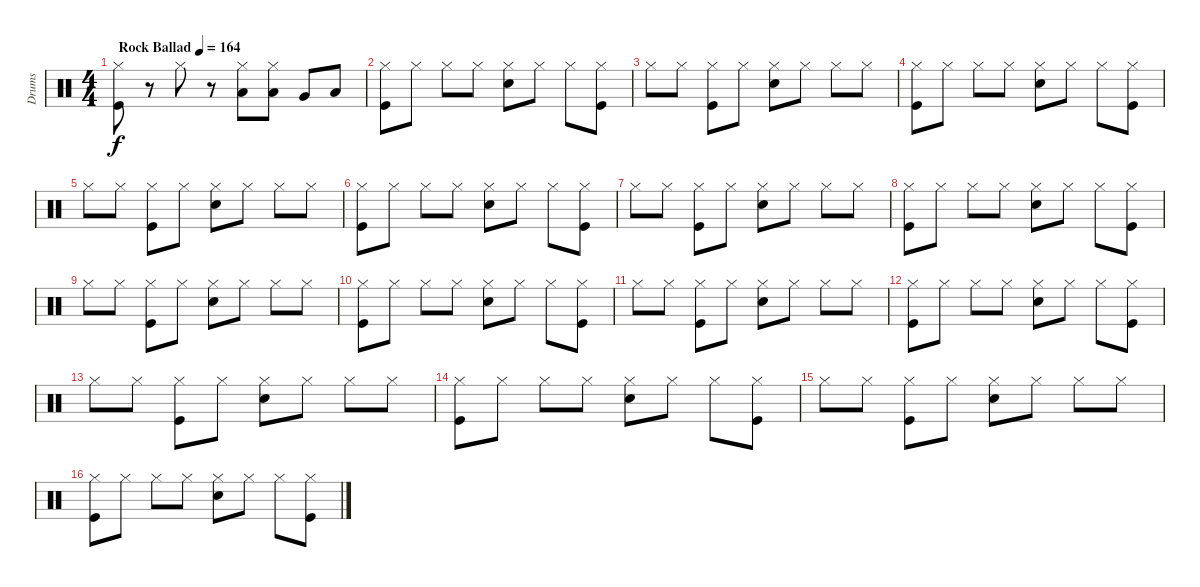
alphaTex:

\track ("Drums" "Drums") {instrument percussion}
\staff {score}
\articulation defaults
\ts (4 4)
\tempo (164 "Rock Ballad")
\clef neutral
\ks c
("Kick (hit)" "Hi-Hat (closed)").8{dy f} r.8 "Hi-Hat (closed)".8 r.8 ("Low Tom (hit)" "Hi-Hat (closed)").8 ("Low Tom (hit)" "Hi-Hat (closed)").8 "Very Low Tom (hit)".8 "Low Floor Tom (hit)".8 |
("Kick (hit)" "Hi-Hat (closed)").8 "Hi-Hat (closed)".8 "Hi-Hat (closed)".8 "Hi-Hat (closed)".8 ("Snare (hit) 2" "Hi-Hat (closed)").8 "Hi-Hat (closed)".8 "Hi-Hat (closed)".8 ("Kick (hit)" "Hi-Hat (closed)").8 |
"Hi-Hat (closed)".8 "Hi-Hat (closed)".8 ("Kick (hit)" "Hi-Hat (closed)").8 "Hi-Hat (closed)".8 ("Snare (hit) 2" "Hi-Hat (closed)").8 "Hi-Hat (closed)".8 "Hi-Hat (closed)".8 "Hi-Hat (closed)".8 |
("Kick (hit)" "Hi-Hat (closed)").8 "Hi-Hat (closed)".8 "Hi-Hat (closed)".8 "Hi-Hat (closed)".8 ("Snare (hit) 2" "Hi-Hat (closed)").8 "Hi-Hat (closed)".8 "Hi-Hat (closed)".8 ("Kick (hit)" "Hi-Hat (closed)").8 |
"Hi-Hat (closed)".8 "Hi-Hat (closed)".8 ("Kick (hit)" "Hi-Hat (closed)").8 "Hi-Hat (closed)".8 ("Snare (hit) 2" "Hi-Hat (closed)").8 "Hi-Hat (closed)".8 "Hi-Hat (closed)".8 "Hi-Hat (closed)".8 |
("Kick (hit)" "Hi-Hat (closed)").8 "Hi-Hat (closed)".8 "Hi-Hat (closed)".8 "Hi-Hat (closed)".8 ("Snare (hit) 2" "Hi-Hat (closed)").8 "Hi-Hat (closed)".8 "Hi-Hat (closed)".8 ("Kick (hit)" "Hi-Hat (closed)").8 |
"Hi-Hat (closed)".8 "Hi-Hat (closed)".8 ("Kick (hit)" "Hi-Hat (closed)").8 "Hi-Hat (closed)".8 ("Snare (hit) 2" "Hi-Hat (closed)").8 "Hi-Hat (closed)".8 "Hi-Hat (closed)".8 "Hi-Hat (closed)".8 |
("Kick (hit)" "Hi-Hat (closed)").8 "Hi-Hat (closed)".8 "Hi-Hat (closed)".8 "Hi-Hat (closed)".8 ("Snare (hit) 2" "Hi-Hat (closed)").8 "Hi-Hat (closed)".8 "Hi-Hat (closed)".8 ("Kick (hit)" "Hi-Hat (closed)").8 |
"Hi-Hat (closed)".8 "Hi-Hat (closed)".8 ("Kick (hit)" "Hi-Hat (closed)").8 "Hi-Hat (closed)".8 ("Snare (hit) 2" "Hi-Hat (closed)").8 "Hi-Hat (closed)".8 "Hi-Hat (closed)".8 "Hi-Hat (closed)".8 |
("Kick (hit)" "Hi-Hat (closed)").8 "Hi-Hat (closed)".8 "Hi-Hat (closed)".8 "Hi-Hat (closed)".8 ("Snare (hit) 2" "Hi-Hat (closed)").8 "Hi-Hat (closed)".8 "Hi-Hat (closed)".8 ("Kick (hit)" "Hi-Hat (closed)").8 |
"Hi-Hat (closed)".8 "Hi-Hat (closed)".8 ("Kick (hit)" "Hi-Hat (closed)").8 "Hi-Hat (closed)".8 ("Snare (hit) 2" "Hi-Hat (closed)").8 "Hi-Hat (closed)".8 "Hi-Hat (closed)".8 "Hi-Hat (closed)".8 |
("Kick (hit)" "Hi-Hat (closed)").8 "Hi-Hat (closed)".8 "Hi-Hat (closed)".8 "Hi-Hat (closed)".8 ("Snare (hit) 2" "Hi-Hat (closed)").8 "Hi-Hat (closed)".8 "Hi-Hat (closed)".8 ("Kick (hit)" "Hi-Hat (closed)").8 |
"Hi-Hat (closed)".8 "Hi-Hat (closed)".8 ("Kick (hit)" "Hi-Hat (closed)").8 "Hi-Hat (closed)".8 ("Snare (hit) 2" "Hi-Hat (closed)").8 "Hi-Hat (closed)".8 "Hi-Hat (closed)".8 "Hi-Hat (closed)".8 |
("Kick (hit)" "Hi-Hat (closed)").8 "Hi-Hat (closed)".8 "Hi-Hat (closed)".8 "Hi-Hat (closed)".8 ("Snare (hit) 2" "Hi-Hat (closed)").8 "Hi-Hat (closed)".8 "Hi-Hat (closed)".8 ("Kick (hit)" "Hi-Hat (closed)").8 |
"Hi-Hat (closed)".8 "Hi-Hat (closed)".8 ("Kick (hit)" "Hi-Hat (closed)").8 "Hi-Hat (closed)".8 ("Snare (hit) 2" "Hi-Hat (closed)").8 "Hi-Hat (closed)".8 "Hi-Hat (closed)".8 "Hi-Hat (closed)".8 |
("Kick (hit)" "Hi-Hat (closed)").8 "Hi-Hat (closed)".8 "Hi-Hat (closed)".8 "Hi-Hat (closed)".8 ("Snare (hit) 2" "Hi-Hat (closed)").8 "Hi-Hat (closed)".8 "Hi-Hat (closed)".8 ("Kick (hit)" "Hi-Hat (closed)").8
